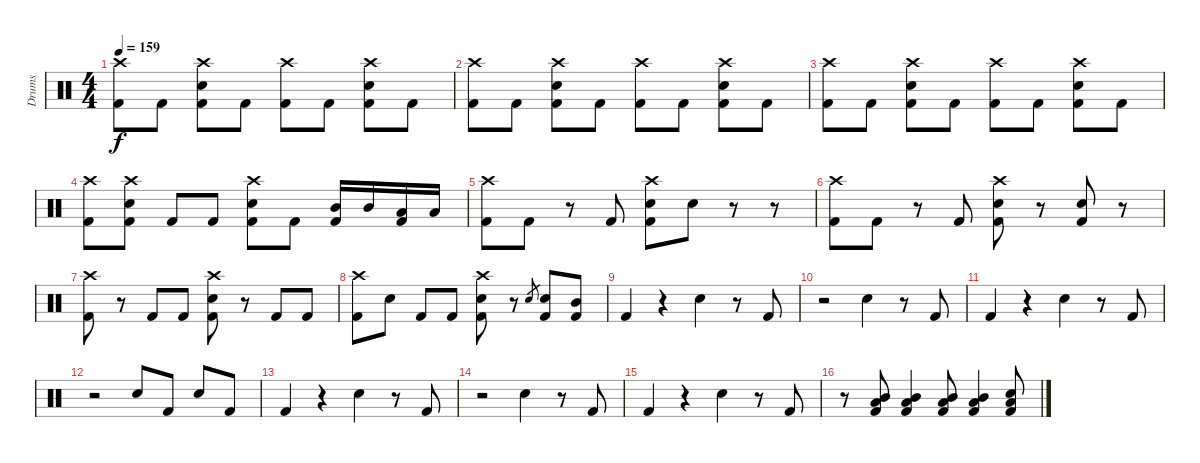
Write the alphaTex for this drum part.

\track ("Drums" "Drums") {instrument percussion}
\staff {score}
\articulation defaults
\ts (4 4)
\tempo 159
\clef neutral
\ks c
("Crash high (hit)" "Kick (hit) 2").8{dy f} "Kick (hit) 2".8 ("Crash high (hit)" "Electric Snare (hit)" "Kick (hit) 2").8 "Kick (hit) 2".8 ("Crash high (hit)" "Kick (hit) 2").8 "Kick (hit) 2".8 ("Crash high (hit)" "Electric Snare (hit)" "Kick (hit) 2").8 "Kick (hit) 2".8 |
("Crash high (hit)" "Kick (hit) 2").8 "Kick (hit) 2".8 ("Crash high (hit)" "Electric Snare (hit)" "Kick (hit) 2").8 "Kick (hit) 2".8 ("Crash high (hit)" "Kick (hit) 2").8 "Kick (hit) 2".8 ("Crash high (hit)" "Electric Snare (hit)" "Kick (hit) 2").8 "Kick (hit) 2".8 |
("Crash high (hit)" "Kick (hit) 2").8 "Kick (hit) 2".8 ("Crash high (hit)" "Electric Snare (hit)" "Kick (hit) 2").8 "Kick (hit) 2".8 ("Crash high (hit)" "Kick (hit) 2").8 "Kick (hit) 2".8 ("Crash high (hit)" "Electric Snare (hit)" "Kick (hit) 2").8 "Kick (hit) 2".8 |
("Crash high (hit)" "Kick (hit) 2").8 ("Crash high (hit)" "Electric Snare (hit)" "Kick (hit) 2").8 "Kick (hit) 2".8 "Kick (hit) 2".8 ("Crash high (hit)" "Electric Snare (hit)" "Kick (hit) 2").8 "Kick (hit) 2".8 ("Mid Tom (hit)" "Kick (hit) 2").16 "Mid Tom (hit)".16 ("Low Tom (hit)" "Kick (hit) 2").16 "Low Tom (hit)".16 |
("Crash high (hit)" "Kick (hit) 2").8 "Kick (hit) 2".8 r.8 "Kick (hit) 2".8 ("Crash high (hit)" "Electric Snare (hit)" "Kick (hit) 2").8 "Electric Snare (hit)".8 r.8 r.8 |
("Crash high (hit)" "Kick (hit) 2").8 "Kick (hit) 2".8 r.8 "Kick (hit) 2".8 ("Crash high (hit)" "Electric Snare (hit)" "Kick (hit) 2").8 r.8 ("Electric Snare (hit)" "Kick (hit) 2").8 r.8 |
("Crash high (hit)" "Kick (hit) 2").8 r.8 "Kick (hit) 2".8 "Kick (hit) 2".8 ("Crash high (hit)" "Electric Snare (hit)" "Kick (hit) 2").8 r.8 "Kick (hit) 2".8 "Kick (hit) 2".8 |
("Crash high (hit)" "Kick (hit) 2").8 "Electric Snare (hit)".8 "Kick (hit) 2".8 "Kick (hit) 2".8 ("Crash high (hit)" "Electric Snare (hit)" "Kick (hit) 2").8 r.8 "Electric Snare (hit)".8{gr} ("Electric Snare (hit)" "Kick (hit) 2").8 ("Mid Tom (hit)" "Kick (hit) 2").8 |
"Kick (hit) 2".4 r.4 "Electric Snare (hit)".4 r.8 "Kick (hit) 2".8 |
r.2 "Electric Snare (hit)".4 r.8 "Kick (hit) 2".8 |
"Kick (hit) 2".4 r.4 "Electric Snare (hit)".4 r.8 "Kick (hit) 2".8 |
r.2 "Electric Snare (hit)".8 "Kick (hit) 2".8 "Electric Snare (hit)".8 "Kick (hit) 2".8 |
"Kick (hit) 2".4 r.4 "Electric Snare (hit)".4 r.8 "Kick (hit) 2".8 |
r.2 "Electric Snare (hit)".4 r.8 "Kick (hit) 2".8 |
"Kick (hit) 2".4 r.4 "Electric Snare (hit)".4 r.8 "Kick (hit) 2".8 |
r.8 ("Mid Tom (hit)" "Low Floor Tom (hit)" "Kick (hit) 2").8 ("Mid Tom (hit)" "Low Floor Tom (hit)" "Kick (hit) 2").4 ("Mid Tom (hit)" "Low Floor Tom (hit)" "Kick (hit) 2").8 ("Mid Tom (hit)" "Low Floor Tom (hit)" "Kick (hit) 2").4 ("Low Floor Tom (hit)" "Electric Snare (hit)" "Kick (hit) 2").8
